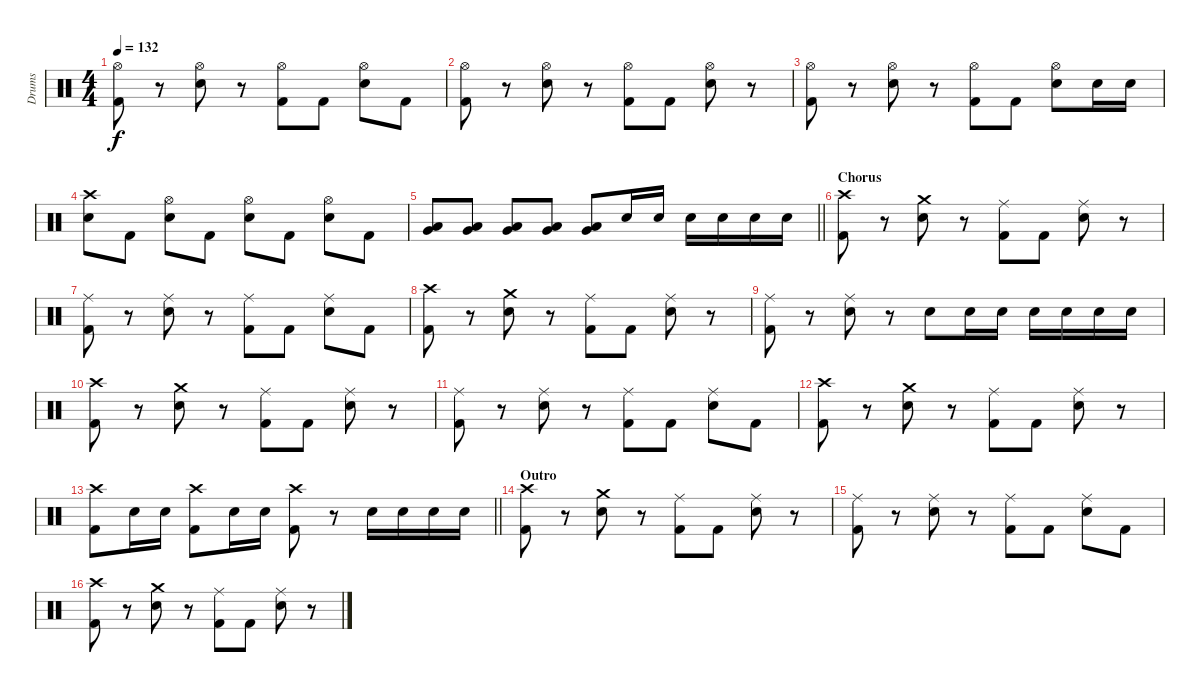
\track ("Drums" "Drums") {instrument percussion}
\staff {score}
\articulation defaults
\ts (4 4)
\tempo 132
\clef neutral
\ks c
("Hi-Hat (open)" "Kick (hit) 2").8{dy f} r.8 ("Hi-Hat (open)" "Electric Snare (hit)").8 r.8 ("Hi-Hat (open)" "Kick (hit) 2").8 "Kick (hit) 2".8 ("Hi-Hat (open)" "Electric Snare (hit)").8 "Kick (hit) 2".8 |
("Hi-Hat (open)" "Kick (hit) 2").8 r.8 ("Hi-Hat (open)" "Electric Snare (hit)").8 r.8 ("Hi-Hat (open)" "Kick (hit) 2").8 "Kick (hit) 2".8 ("Hi-Hat (open)" "Electric Snare (hit)").8 r.8 |
("Hi-Hat (open)" "Kick (hit) 2").8 r.8 ("Hi-Hat (open)" "Electric Snare (hit)").8 r.8 ("Hi-Hat (open)" "Kick (hit) 2").8 "Kick (hit) 2".8 ("Hi-Hat (open)" "Electric Snare (hit)").8 "Electric Snare (hit)".16 "Electric Snare (hit)".16 |
("Crash high (hit)" "Electric Snare (hit)").8 "Kick (hit) 2".8 ("Hi-Hat (open)" "Electric Snare (hit)").8 "Kick (hit) 2".8 ("Hi-Hat (open)" "Electric Snare (hit)").8 "Kick (hit) 2".8 ("Hi-Hat (open)" "Electric Snare (hit)").8 "Kick (hit) 2".8 |
\barLineRight lightlight
("Very Low Tom (hit)" "Low Tom (hit)").8 ("Very Low Tom (hit)" "Low Tom (hit)").8 ("Very Low Tom (hit)" "Low Tom (hit)").8 ("Very Low Tom (hit)" "Low Tom (hit)").8 ("Very Low Tom (hit)" "Low Tom (hit)").8 "Electric Snare (hit)".16 "Electric Snare (hit)".16 "Electric Snare (hit)".16 "Electric Snare (hit)".16 "Electric Snare (hit)".16 "Electric Snare (hit)".16 |
\section ("" "Chorus")
("Crash high (hit)" "Kick (hit) 2").8 r.8 ("Crash medium (hit)" "Electric Snare (hit)").8 r.8 ("Ride (middle)" "Kick (hit) 2").8 "Kick (hit) 2".8 ("Ride (middle)" "Electric Snare (hit)").8 r.8 |
("Ride (middle)" "Kick (hit) 2").8 r.8 ("Ride (middle)" "Electric Snare (hit)").8 r.8 ("Ride (middle)" "Kick (hit) 2").8 "Kick (hit) 2".8 ("Ride (middle)" "Electric Snare (hit)").8 "Kick (hit) 2".8 |
("Crash high (hit)" "Kick (hit) 2").8 r.8 ("Crash medium (hit)" "Electric Snare (hit)").8 r.8 ("Ride (middle)" "Kick (hit) 2").8 "Kick (hit) 2".8 ("Ride (middle)" "Electric Snare (hit)").8 r.8 |
("Ride (middle)" "Kick (hit) 2").8 r.8 ("Ride (middle)" "Electric Snare (hit)").8 r.8 "Electric Snare (hit)".8 "Electric Snare (hit)".16 "Electric Snare (hit)".16 "Electric Snare (hit)".16 "Electric Snare (hit)".16 "Electric Snare (hit)".16 "Electric Snare (hit)".16 |
("Crash high (hit)" "Kick (hit) 2").8 r.8 ("Crash medium (hit)" "Electric Snare (hit)").8 r.8 ("Ride (middle)" "Kick (hit) 2").8 "Kick (hit) 2".8 ("Ride (middle)" "Electric Snare (hit)").8 r.8 |
("Ride (middle)" "Kick (hit) 2").8 r.8 ("Ride (middle)" "Electric Snare (hit)").8 r.8 ("Ride (middle)" "Kick (hit) 2").8 "Kick (hit) 2".8 ("Ride (middle)" "Electric Snare (hit)").8 "Kick (hit) 2".8 |
("Crash high (hit)" "Kick (hit) 2").8 r.8 ("Crash medium (hit)" "Electric Snare (hit)").8 r.8 ("Ride (middle)" "Kick (hit) 2").8 "Kick (hit) 2".8 ("Ride (middle)" "Electric Snare (hit)").8 r.8 |
\barLineRight lightlight
("Crash high (hit)" "Kick (hit) 2").8 "Electric Snare (hit)".16 "Electric Snare (hit)".16 ("Crash high (hit)" "Kick (hit) 2").8 "Electric Snare (hit)".16 "Electric Snare (hit)".16 ("Crash high (hit)" "Kick (hit) 2").8 r.8 "Electric Snare (hit)".16 "Electric Snare (hit)".16 "Electric Snare (hit)".16 "Electric Snare (hit)".16 |
\section ("" "Outro")
("Crash high (hit)" "Kick (hit) 2").8 r.8 ("Crash medium (hit)" "Electric Snare (hit)").8 r.8 ("Ride (middle)" "Kick (hit) 2").8 "Kick (hit) 2".8 ("Ride (middle)" "Electric Snare (hit)").8 r.8 |
("Ride (middle)" "Kick (hit) 2").8 r.8 ("Ride (middle)" "Electric Snare (hit)").8 r.8 ("Ride (middle)" "Kick (hit) 2").8 "Kick (hit) 2".8 ("Ride (middle)" "Electric Snare (hit)").8 "Kick (hit) 2".8 |
("Crash high (hit)" "Kick (hit) 2").8 r.8 ("Crash medium (hit)" "Electric Snare (hit)").8 r.8 ("Ride (middle)" "Kick (hit) 2").8 "Kick (hit) 2".8 ("Ride (middle)" "Electric Snare (hit)").8 r.8
